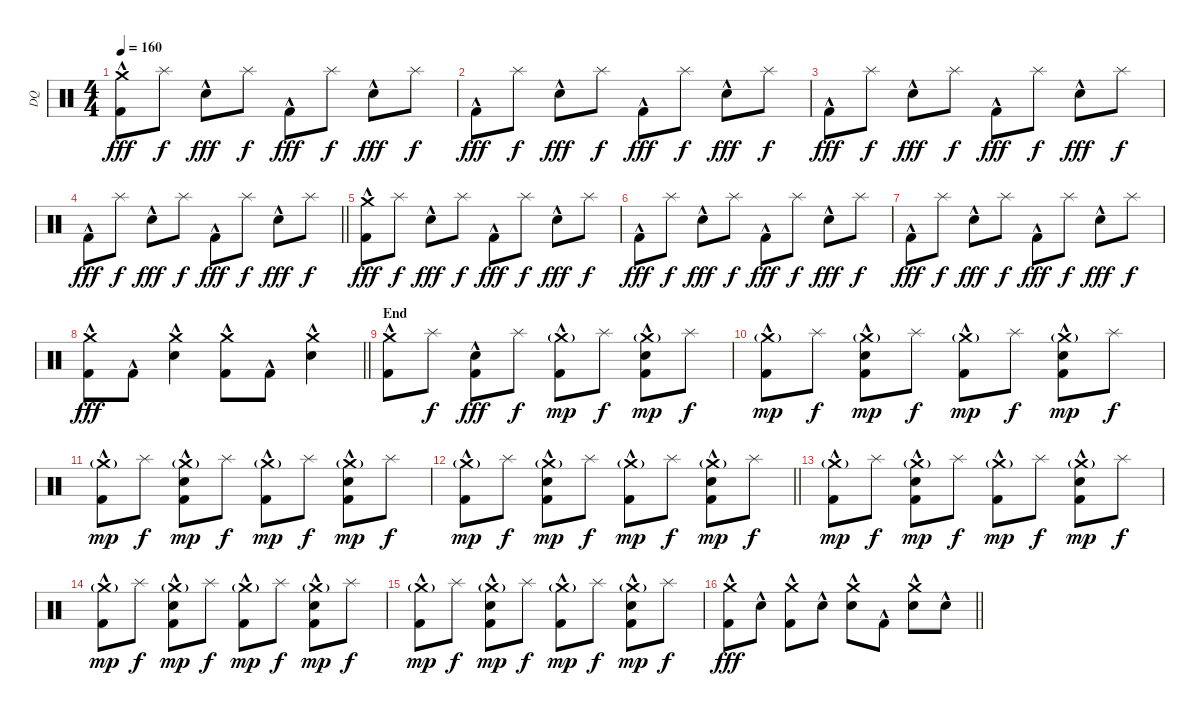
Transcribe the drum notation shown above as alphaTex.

\track ("DQ" "DQ") {instrument percussion}
\staff {score}
\articulation defaults
\ts (4 4)
\section ("" "")
\tempo 160
\clef neutral
\ks c
("Kick (hit) 2"{hac} "Crash medium (hit)").8{dy fff} "Splash (hit)".8{dy f} "Snare (hit) 2"{hac}.8{dy fff} "Splash (hit)".8{dy f} "Kick (hit) 2"{hac}.8{dy fff} "Splash (hit)".8{dy f} "Snare (hit) 2"{hac}.8{dy fff} "Splash (hit)".8{dy f} |
"Kick (hit) 2"{hac}.8{dy fff} "Splash (hit)".8{dy f} "Snare (hit) 2"{hac}.8{dy fff} "Splash (hit)".8{dy f} "Kick (hit) 2"{hac}.8{dy fff} "Splash (hit)".8{dy f} "Snare (hit) 2"{hac}.8{dy fff} "Splash (hit)".8{dy f} |
"Kick (hit) 2"{hac}.8{dy fff} "Splash (hit)".8{dy f} "Snare (hit) 2"{hac}.8{dy fff} "Splash (hit)".8{dy f} "Kick (hit) 2"{hac}.8{dy fff} "Splash (hit)".8{dy f} "Snare (hit) 2"{hac}.8{dy fff} "Splash (hit)".8{dy f} |
\barLineRight lightlight "Kick (hit) 2"{hac}.8{dy fff} "Splash (hit)".8{dy f} "Snare (hit) 2"{hac}.8{dy fff} "Splash (hit)".8{dy f} "Kick (hit) 2"{hac}.8{dy fff} "Splash (hit)".8{dy f} "Snare (hit) 2"{hac}.8{dy fff} "Splash (hit)".8{dy f}
|
\section ("" "")
("Kick (hit) 2"{hac} "Crash medium (hit)").8{dy fff} "Splash (hit)".8{dy f} "Snare (hit) 2"{hac}.8{dy fff} "Splash (hit)".8{dy f} "Kick (hit) 2"{hac}.8{dy fff} "Splash (hit)".8{dy f} "Snare (hit) 2"{hac}.8{dy fff} "Splash (hit)".8{dy f} |
"Kick (hit) 2"{hac}.8{dy fff} "Splash (hit)".8{dy f} "Snare (hit) 2"{hac}.8{dy fff} "Splash (hit)".8{dy f} "Kick (hit) 2"{hac}.8{dy fff} "Splash (hit)".8{dy f} "Snare (hit) 2"{hac}.8{dy fff} "Splash (hit)".8{dy f} |
"Kick (hit) 2"{hac}.8{dy fff} "Splash (hit)".8{dy f} "Snare (hit) 2"{hac}.8{dy fff} "Splash (hit)".8{dy f} "Kick (hit) 2"{hac}.8{dy fff} "Splash (hit)".8{dy f} "Snare (hit) 2"{hac}.8{dy fff} "Splash (hit)".8{dy f} |
\barLineRight lightlight
("Kick (hit) 2"{hac} "Crash medium (hit)").8{dy fff} "Kick (hit) 2"{hac}.8 ("Snare (hit) 2"{hac} "Crash medium (hit)").4 ("Kick (hit) 2"{hac} "Crash medium (hit)").8 "Kick (hit) 2"{hac}.8 ("Snare (hit) 2"{hac} "Crash medium (hit)").4 |
\section ("" "End")
("Kick (hit) 2"{hac} "Crash medium (hit)").8 "Splash (hit)".8{dy f} ("Kick (hit) 2"{hac} "Snare (hit) 2"{hac}).8{dy fff} "Splash (hit)".8{dy f} ("Kick (hit) 2"{hac} "Crash medium (hit)"{g}).8{dy mp} "Splash (hit)".8{dy f} ("Kick (hit) 2"{hac} "Snare (hit) 2"{hac} "Crash medium (hit)"{g}).8{dy mp} "Splash (hit)".8{dy f} |
("Kick (hit) 2"{hac} "Crash medium (hit)"{g}).8{dy mp} "Splash (hit)".8{dy f} ("Kick (hit) 2"{hac} "Snare (hit) 2"{hac} "Crash medium (hit)"{g}).8{dy mp} "Splash (hit)".8{dy f} ("Kick (hit) 2"{hac} "Crash medium (hit)"{g}).8{dy mp} "Splash (hit)".8{dy f} ("Kick (hit) 2"{hac} "Snare (hit) 2"{hac} "Crash medium (hit)"{g}).8{dy mp} "Splash (hit)".8{dy f} |
("Kick (hit) 2"{hac} "Crash medium (hit)"{g}).8{dy mp} "Splash (hit)".8{dy f} ("Kick (hit) 2"{hac} "Snare (hit) 2"{hac} "Crash medium (hit)"{g}).8{dy mp} "Splash (hit)".8{dy f} ("Kick (hit) 2"{hac} "Crash medium (hit)"{g}).8{dy mp} "Splash (hit)".8{dy f} ("Kick (hit) 2"{hac} "Snare (hit) 2"{hac} "Crash medium (hit)"{g}).8{dy mp} "Splash (hit)".8{dy f} |
\barLineRight lightlight
("Kick (hit) 2"{hac} "Crash medium (hit)"{g}).8{dy mp} "Splash (hit)".8{dy f} ("Kick (hit) 2"{hac} "Snare (hit) 2"{hac} "Crash medium (hit)"{g}).8{dy mp} "Splash (hit)".8{dy f} ("Kick (hit) 2"{hac} "Crash medium (hit)"{g}).8{dy mp} "Splash (hit)".8{dy f} ("Kick (hit) 2"{hac} "Snare (hit) 2"{hac} "Crash medium (hit)"{g}).8{dy mp} "Splash (hit)".8{dy f} |
\section ("" "")
("Kick (hit) 2"{hac} "Crash medium (hit)"{g}).8{dy mp} "Splash (hit)".8{dy f} ("Kick (hit) 2"{hac} "Snare (hit) 2"{hac} "Crash medium (hit)"{g}).8{dy mp} "Splash (hit)".8{dy f} ("Kick (hit) 2"{hac} "Crash medium (hit)"{g}).8{dy mp} "Splash (hit)".8{dy f} ("Kick (hit) 2"{hac} "Snare (hit) 2"{hac} "Crash medium (hit)"{g}).8{dy mp} "Splash (hit)".8{dy f} |
("Kick (hit) 2"{hac} "Crash medium (hit)"{g}).8{dy mp} "Splash (hit)".8{dy f} ("Kick (hit) 2"{hac} "Snare (hit) 2"{hac} "Crash medium (hit)"{g}).8{dy mp} "Splash (hit)".8{dy f} ("Kick (hit) 2"{hac} "Crash medium (hit)"{g}).8{dy mp} "Splash (hit)".8{dy f} ("Kick (hit) 2"{hac} "Snare (hit) 2"{hac} "Crash medium (hit)"{g}).8{dy mp} "Splash (hit)".8{dy f} |
("Kick (hit) 2"{hac} "Crash medium (hit)"{g}).8{dy mp} "Splash (hit)".8{dy f} ("Kick (hit) 2"{hac} "Snare (hit) 2"{hac} "Crash medium (hit)"{g}).8{dy mp} "Splash (hit)".8{dy f} ("Kick (hit) 2"{hac} "Crash medium (hit)"{g}).8{dy mp} "Splash (hit)".8{dy f} ("Kick (hit) 2"{hac} "Snare (hit) 2"{hac} "Crash medium (hit)"{g}).8{dy mp} "Splash (hit)".8{dy f} |
\barLineRight lightlight
("Kick (hit) 2"{hac} "Crash medium (hit)").8{dy fff} "Snare (hit) 2"{hac}.8 ("Kick (hit) 2"{hac} "Crash medium (hit)").8 "Snare (hit) 2"{hac}.8 ("Snare (hit) 2"{hac} "Crash medium (hit)").8 "Kick (hit) 2"{hac}.8 ("Snare (hit) 2"{hac} "Crash medium (hit)").8 "Snare (hit) 2"{hac}.8
